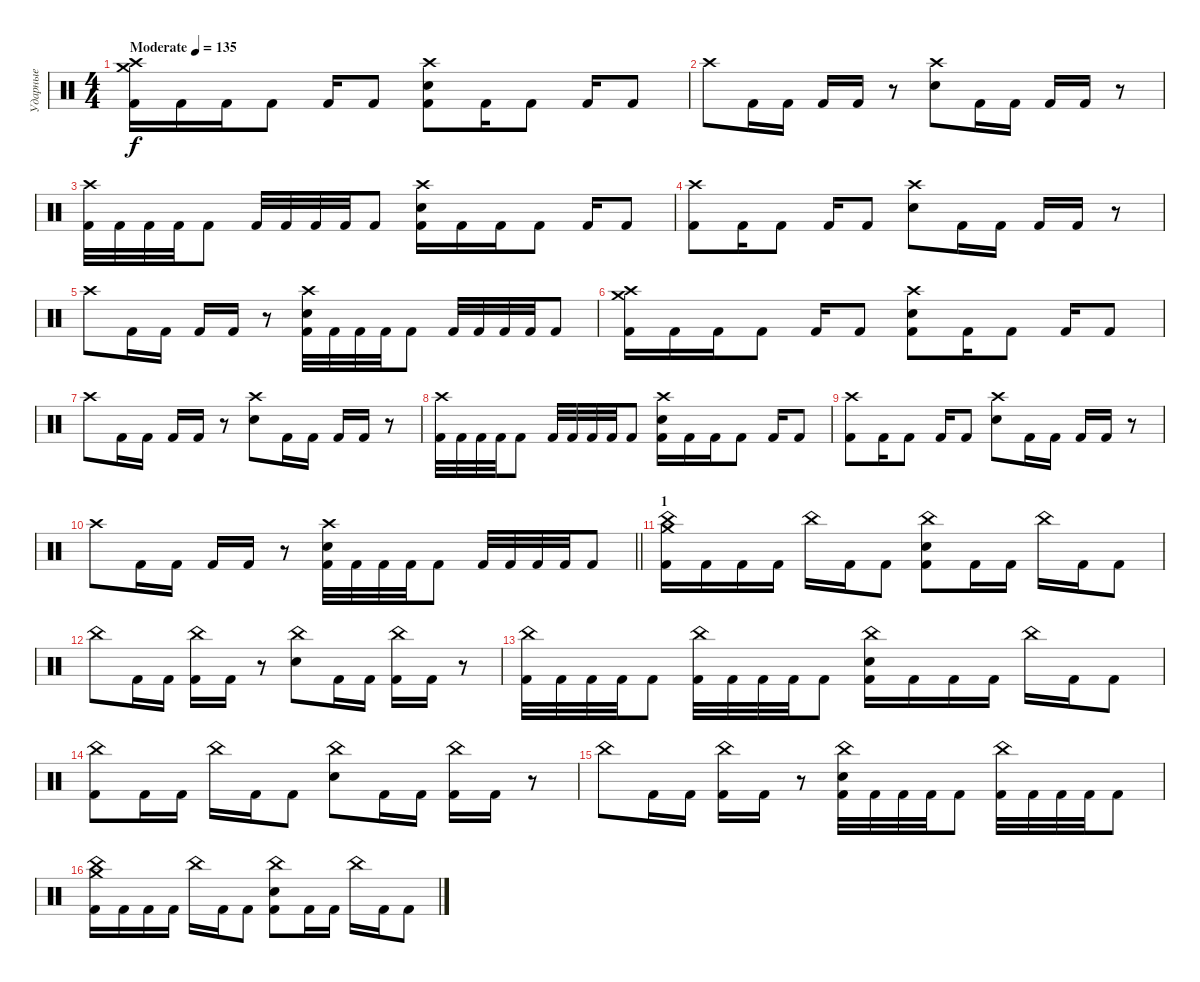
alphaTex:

\track ("Ударные" "Ударные") {instrument percussion}
\staff
\articulation defaults
\ts (4 4)
\tempo (135 "Moderate")
\clef neutral
\ks c
("Crash high (hit)" "Crash medium (hit)" "Kick (hit) 2").16{dy f} "Kick (hit) 2".16 "Kick (hit) 2".16 "Kick (hit) 2".8 "Kick (hit) 2".16 "Kick (hit) 2".8 ("Crash high (hit)" "Electric Snare (hit)" "Kick (hit) 2").8 "Kick (hit) 2".16 "Kick (hit) 2".8 "Kick (hit) 2".16 "Kick (hit) 2".8 |
"Crash high (hit)".8 "Kick (hit) 2".16 "Kick (hit) 2".16 "Kick (hit) 2".16 "Kick (hit) 2".16 r.8 ("Crash high (hit)" "Electric Snare (hit)").8 "Kick (hit) 2".16 "Kick (hit) 2".16 "Kick (hit) 2".16 "Kick (hit) 2".16 r.8 |
("Crash high (hit)" "Kick (hit) 2").32 "Kick (hit) 2".32 "Kick (hit) 2".32 "Kick (hit) 2".32 "Kick (hit) 2".8 "Kick (hit) 2".32 "Kick (hit) 2".32 "Kick (hit) 2".32 "Kick (hit) 2".32 "Kick (hit) 2".8 ("Crash high (hit)" "Electric Snare (hit)" "Kick (hit) 2").16 "Kick (hit) 2".16 "Kick (hit) 2".16 "Kick (hit) 2".8 "Kick (hit) 2".16 "Kick (hit) 2".8 |
("Crash high (hit)" "Kick (hit) 2").8 "Kick (hit) 2".16 "Kick (hit) 2".8 "Kick (hit) 2".16 "Kick (hit) 2".8 ("Crash high (hit)" "Electric Snare (hit)").8 "Kick (hit) 2".16 "Kick (hit) 2".16 "Kick (hit) 2".16 "Kick (hit) 2".16 r.8 |
"Crash high (hit)".8 "Kick (hit) 2".16 "Kick (hit) 2".16 "Kick (hit) 2".16 "Kick (hit) 2".16 r.8 ("Crash high (hit)" "Electric Snare (hit)" "Kick (hit) 2").32 "Kick (hit) 2".32 "Kick (hit) 2".32 "Kick (hit) 2".32 "Kick (hit) 2".8 "Kick (hit) 2".32 "Kick (hit) 2".32 "Kick (hit) 2".32 "Kick (hit) 2".32 "Kick (hit) 2".8 |
("Crash high (hit)" "Crash medium (hit)" "Kick (hit) 2").16 "Kick (hit) 2".16 "Kick (hit) 2".16 "Kick (hit) 2".8 "Kick (hit) 2".16 "Kick (hit) 2".8 ("Crash high (hit)" "Electric Snare (hit)" "Kick (hit) 2").8 "Kick (hit) 2".16 "Kick (hit) 2".8 "Kick (hit) 2".16 "Kick (hit) 2".8 |
"Crash high (hit)".8 "Kick (hit) 2".16 "Kick (hit) 2".16 "Kick (hit) 2".16 "Kick (hit) 2".16 r.8 ("Crash high (hit)" "Electric Snare (hit)").8 "Kick (hit) 2".16 "Kick (hit) 2".16 "Kick (hit) 2".16 "Kick (hit) 2".16 r.8 |
("Crash high (hit)" "Kick (hit) 2").32 "Kick (hit) 2".32 "Kick (hit) 2".32 "Kick (hit) 2".32 "Kick (hit) 2".8 "Kick (hit) 2".32 "Kick (hit) 2".32 "Kick (hit) 2".32 "Kick (hit) 2".32 "Kick (hit) 2".8 ("Crash high (hit)" "Electric Snare (hit)" "Kick (hit) 2").16 "Kick (hit) 2".16 "Kick (hit) 2".16 "Kick (hit) 2".8 "Kick (hit) 2".16 "Kick (hit) 2".8 |
("Crash high (hit)" "Kick (hit) 2").8 "Kick (hit) 2".16 "Kick (hit) 2".8 "Kick (hit) 2".16 "Kick (hit) 2".8 ("Crash high (hit)" "Electric Snare (hit)").8 "Kick (hit) 2".16 "Kick (hit) 2".16 "Kick (hit) 2".16 "Kick (hit) 2".16 r.8 |
\barLineRight lightlight "Crash high (hit)".8 "Kick (hit) 2".16 "Kick (hit) 2".16 "Kick (hit) 2".16 "Kick (hit) 2".16
r.8 ("Crash high (hit)" "Electric Snare (hit)" "Kick (hit) 2").32 "Kick (hit) 2".32 "Kick (hit) 2".32 "Kick (hit) 2".32 "Kick (hit) 2".8 "Kick (hit) 2".32 "Kick (hit) 2".32 "Kick (hit) 2".32 "Kick (hit) 2".32 "Kick (hit) 2".8 |
\section ("" "1")
("China (hit)" "Crash medium (hit)" "Kick (hit) 2").16 "Kick (hit) 2".16 "Kick (hit) 2".16 "Kick (hit) 2".16 "China (hit)".16 "Kick (hit) 2".16 "Kick (hit) 2".8 ("China (hit)" "Electric Snare (hit)" "Kick (hit) 2").8 "Kick (hit) 2".16 "Kick (hit) 2".16 "China (hit)".16 "Kick (hit) 2".16 "Kick (hit) 2".8 |
"China (hit)".8 "Kick (hit) 2".16 "Kick (hit) 2".16 ("China (hit)" "Kick (hit) 2").16 "Kick (hit) 2".16 r.8 ("China (hit)" "Electric Snare (hit)").8 "Kick (hit) 2".16 "Kick (hit) 2".16 ("China (hit)" "Kick (hit) 2").16 "Kick (hit) 2".16 r.8 |
("China (hit)" "Kick (hit) 2").32 "Kick (hit) 2".32 "Kick (hit) 2".32 "Kick (hit) 2".32 "Kick (hit) 2".8 ("China (hit)" "Kick (hit) 2").32 "Kick (hit) 2".32 "Kick (hit) 2".32 "Kick (hit) 2".32 "Kick (hit) 2".8 ("China (hit)" "Electric Snare (hit)" "Kick (hit) 2").16 "Kick (hit) 2".16 "Kick (hit) 2".16 "Kick (hit) 2".16 "China (hit)".16 "Kick (hit) 2".16 "Kick (hit) 2".8 |
("China (hit)" "Kick (hit) 2").8 "Kick (hit) 2".16 "Kick (hit) 2".16 "China (hit)".16 "Kick (hit) 2".16 "Kick (hit) 2".8 ("China (hit)" "Electric Snare (hit)").8 "Kick (hit) 2".16 "Kick (hit) 2".16 ("China (hit)" "Kick (hit) 2").16 "Kick (hit) 2".16 r.8 |
"China (hit)".8 "Kick (hit) 2".16 "Kick (hit) 2".16 ("China (hit)" "Kick (hit) 2").16 "Kick (hit) 2".16 r.8 ("China (hit)" "Electric Snare (hit)" "Kick (hit) 2").32 "Kick (hit) 2".32 "Kick (hit) 2".32 "Kick (hit) 2".32 "Kick (hit) 2".8 ("China (hit)" "Kick (hit) 2").32 "Kick (hit) 2".32 "Kick (hit) 2".32 "Kick (hit) 2".32 "Kick (hit) 2".8 |
("China (hit)" "Crash medium (hit)" "Kick (hit) 2").16 "Kick (hit) 2".16 "Kick (hit) 2".16 "Kick (hit) 2".16 "China (hit)".16 "Kick (hit) 2".16 "Kick (hit) 2".8 ("China (hit)" "Electric Snare (hit)" "Kick (hit) 2").8 "Kick (hit) 2".16 "Kick (hit) 2".16 "China (hit)".16 "Kick (hit) 2".16 "Kick (hit) 2".8
